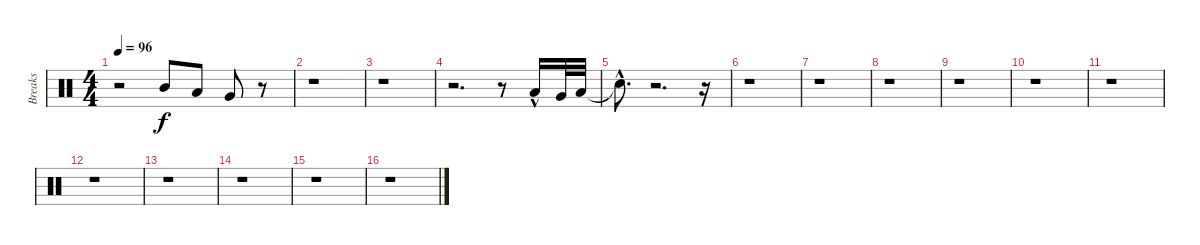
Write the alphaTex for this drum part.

\track ("Breaks" "Breaks") {instrument percussion}
\staff {score}
\articulation defaults
\ts (4 4)
\tempo 96
\clef neutral
\ks c
r.2{dy f} "Mid Tom (hit)".8 "Low Tom (hit)".8 "Very Low Tom (hit)".8 r.8 |
r.1 |
r.1 |
r.2{d} r.8 "Low Tom (hit)"{hac}.16 "Very Low Tom (hit)".32 "Low Floor Tom (hit)".32 |
"Snare (hit)"{hac t}.8{d} r.2{d} r.16 |
r.1 |
r.1 |
r.1 |
r.1 |
r.1 |
r.1 |
r.1 |
r.1 |
r.1 |
r.1 |
r.1
